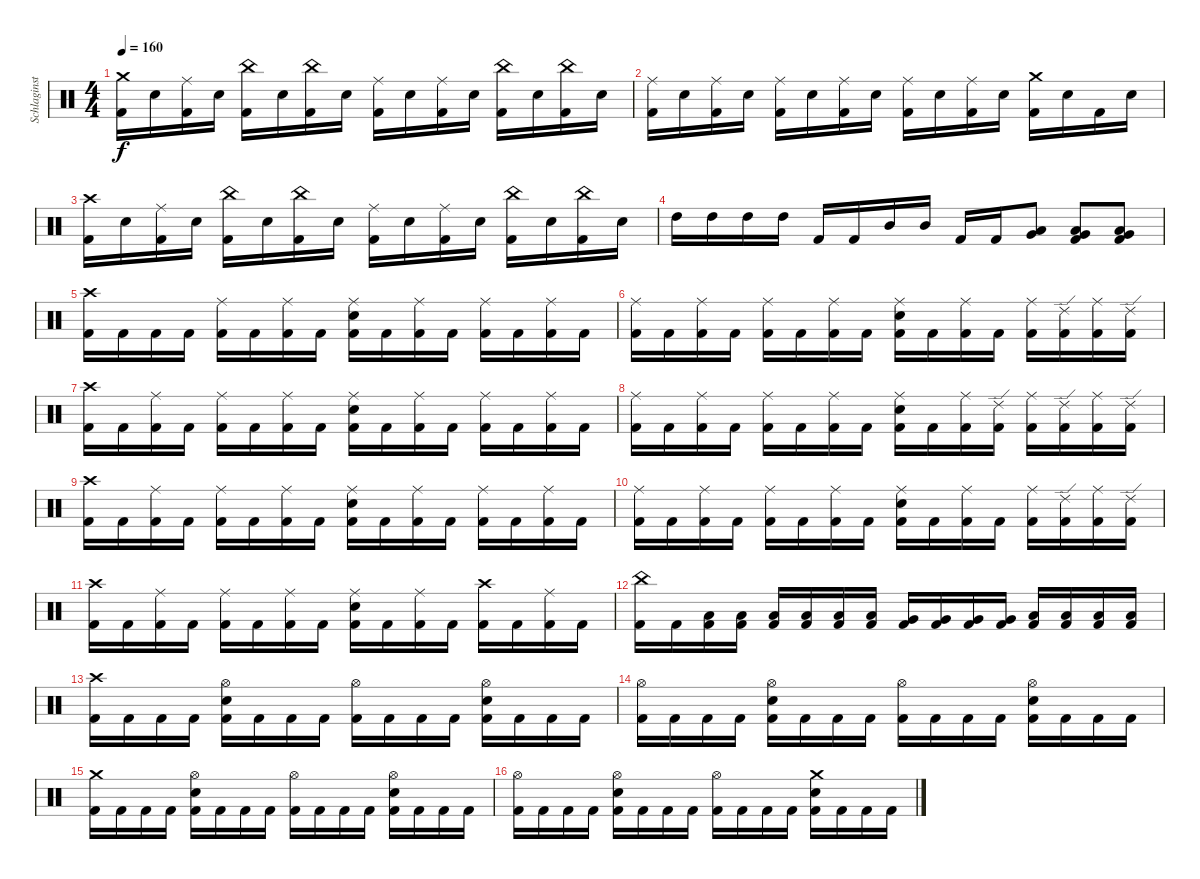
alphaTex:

\track ("Schlaginstrumente - Auswahl" "Schlaginst") {instrument percussion}
\staff {score}
\articulation defaults
\ts (4 4)
\tempo 160
\clef neutral
\ks c
("Crash medium (hit)" "Kick (hit) 2").16{dy f} "Snare (hit) 2".16 ("Ride (middle)" "Kick (hit) 2").16 "Snare (hit) 2".16 ("China (hit)" "Kick (hit) 2").16 "Snare (hit) 2".16 ("China (hit)" "Kick (hit) 2").16 "Snare (hit) 2".16 ("Ride (middle)" "Kick (hit) 2").16 "Snare (hit) 2".16 ("Ride (middle)" "Kick (hit) 2").16 "Snare (hit) 2".16 ("China (hit)" "Kick (hit) 2").16 "Snare (hit) 2".16 ("China (hit)" "Kick (hit) 2").16 "Snare (hit) 2".16 |
("Ride (middle)" "Kick (hit) 2").16 "Snare (hit) 2".16 ("Ride (middle)" "Kick (hit) 2").16 "Snare (hit) 2".16 ("Ride (middle)" "Kick (hit) 2").16 "Snare (hit) 2".16 ("Ride (middle)" "Kick (hit) 2").16 "Snare (hit) 2".16 ("Ride (middle)" "Kick (hit) 2").16 "Snare (hit) 2".16 ("Ride (middle)" "Kick (hit) 2").16 "Snare (hit) 2".16 ("Crash medium (hit)" "Kick (hit) 2").16 "Snare (hit) 2".16 "Kick (hit) 2".16 "Snare (hit) 2".16 |
("Crash high (hit)" "Kick (hit) 2").16 "Snare (hit) 2".16 ("Ride (middle)" "Kick (hit) 2").16 "Snare (hit) 2".16 ("China (hit)" "Kick (hit) 2").16 "Snare (hit) 2".16 ("China (hit)" "Kick (hit) 2").16 "Snare (hit) 2".16 ("Ride (middle)" "Kick (hit) 2").16 "Snare (hit) 2".16 ("Ride (middle)" "Kick (hit) 2").16 "Snare (hit) 2".16 ("China (hit)" "Kick (hit) 2").16 "Snare (hit) 2".16 ("China (hit)" "Kick (hit) 2").16 "Snare (hit) 2".16 |
"High Tom (hit)".16 "High Tom (hit)".16 "High Tom (hit)".16 "High Tom (hit)".16 "Kick (hit) 2".16 "Kick (hit) 2".16 "Mid Tom (hit)".16 "Mid Tom (hit)".16 "Kick (hit) 2".16 "Kick (hit) 2".16 ("Very Low Tom (hit)" "Low Floor Tom (hit)").8 ("Very Low Tom (hit)" "Low Floor Tom (hit)" "Kick (hit) 2").8 ("Very Low Tom (hit)" "Low Floor Tom (hit)" "Kick (hit) 2").8 |
("Crash high (hit)" "Kick (hit) 2").16 "Kick (hit) 2".16 "Kick (hit) 2".16 "Kick (hit) 2".16 ("Ride (middle)" "Kick (hit) 2").16 "Kick (hit) 2".16 ("Ride (middle)" "Kick (hit) 2").16 "Kick (hit) 2".16 ("Ride (middle)" "Snare (hit) 2" "Kick (hit) 2").16 "Kick (hit) 2".16 ("Ride (middle)" "Kick (hit) 2").16 "Kick (hit) 2".16 ("Ride (middle)" "Kick (hit) 2").16 "Kick (hit) 2".16 ("Ride (middle)" "Kick (hit) 2").16 "Kick (hit) 2".16 |
("Ride (middle)" "Kick (hit) 2").16 "Kick (hit) 2".16 ("Ride (middle)" "Kick (hit) 2").16 "Kick (hit) 2".16 ("Ride (middle)" "Kick (hit) 2").16 "Kick (hit) 2".16 ("Ride (middle)" "Kick (hit) 2").16 "Kick (hit) 2".16 ("Ride (middle)" "Snare (hit) 2" "Kick (hit) 2").16 "Kick (hit) 2".16 ("Ride (middle)" "Kick (hit) 2").16 "Kick (hit) 2".16 ("Ride (middle)" "Kick (hit) 2").16 ("Ride (edge) 2" "Kick (hit) 2").16 ("Ride (middle)" "Kick (hit) 2").16 ("Ride (edge) 2" "Kick (hit) 2").16 |
("Crash high (hit)" "Kick (hit) 2").16 "Kick (hit) 2".16 ("Ride (middle)" "Kick (hit) 2").16 "Kick (hit) 2".16 ("Ride (middle)" "Kick (hit) 2").16 "Kick (hit) 2".16 ("Ride (middle)" "Kick (hit) 2").16 "Kick (hit) 2".16 ("Ride (middle)" "Snare (hit) 2" "Kick (hit) 2").16 "Kick (hit) 2".16 ("Ride (middle)" "Kick (hit) 2").16 "Kick (hit) 2".16 ("Ride (middle)" "Kick (hit) 2").16 "Kick (hit) 2".16 ("Ride (middle)" "Kick (hit) 2").16 "Kick (hit) 2".16 |
("Ride (middle)" "Kick (hit) 2").16 "Kick (hit) 2".16 ("Ride (middle)" "Kick (hit) 2").16 "Kick (hit) 2".16 ("Ride (middle)" "Kick (hit) 2").16 "Kick (hit) 2".16 ("Ride (middle)" "Kick (hit) 2").16 "Kick (hit) 2".16 ("Ride (middle)" "Snare (hit) 2" "Kick (hit) 2").16 "Kick (hit) 2".16 ("Ride (middle)" "Kick (hit) 2").16 ("Ride (edge) 2" "Kick (hit) 2").16 ("Ride (middle)" "Kick (hit) 2").16 ("Ride (edge) 2" "Kick (hit) 2").16 ("Ride (middle)" "Kick (hit) 2").16 ("Ride (edge) 2" "Kick (hit) 2").16 |
("Crash high (hit)" "Kick (hit) 2").16 "Kick (hit) 2".16 ("Ride (middle)" "Kick (hit) 2").16 "Kick (hit) 2".16 ("Ride (middle)" "Kick (hit) 2").16 "Kick (hit) 2".16 ("Ride (middle)" "Kick (hit) 2").16 "Kick (hit) 2".16 ("Ride (middle)" "Snare (hit) 2" "Kick (hit) 2").16 "Kick (hit) 2".16 ("Ride (middle)" "Kick (hit) 2").16 "Kick (hit) 2".16 ("Ride (middle)" "Kick (hit) 2").16 "Kick (hit) 2".16 ("Ride (middle)" "Kick (hit) 2").16 "Kick (hit) 2".16 |
("Ride (middle)" "Kick (hit) 2").16 "Kick (hit) 2".16 ("Ride (middle)" "Kick (hit) 2").16 "Kick (hit) 2".16 ("Ride (middle)" "Kick (hit) 2").16 "Kick (hit) 2".16 ("Ride (middle)" "Kick (hit) 2").16 "Kick (hit) 2".16 ("Ride (middle)" "Snare (hit) 2" "Kick (hit) 2").16 "Kick (hit) 2".16 ("Ride (middle)" "Kick (hit) 2").16 "Kick (hit) 2".16 ("Ride (middle)" "Kick (hit) 2").16 ("Ride (edge) 2" "Kick (hit) 2").16 ("Ride (middle)" "Kick (hit) 2").16 ("Ride (edge) 2" "Kick (hit) 2").16 |
("Crash high (hit)" "Kick (hit) 2").16 "Kick (hit) 2".16 ("Ride (middle)" "Kick (hit) 2").16 "Kick (hit) 2".16 ("Ride (middle)" "Kick (hit) 2").16 "Kick (hit) 2".16 ("Ride (middle)" "Kick (hit) 2").16 "Kick (hit) 2".16 ("Ride (middle)" "Snare (hit) 2" "Kick (hit) 2").16 "Kick (hit) 2".16 ("Ride (middle)" "Kick (hit) 2").16 "Kick (hit) 2".16 ("Crash high (hit)" "Kick (hit) 2").16 "Kick (hit) 2".16 ("Ride (middle)" "Kick (hit) 2").16 "Kick (hit) 2".16 |
("China (hit)" "Kick (hit) 2").16 "Kick (hit) 2".16 ("Low Tom (hit)" "Kick (hit) 2").16 ("Low Tom (hit)" "Kick (hit) 2").16 ("Low Tom (hit)" "Kick (hit) 2").16 ("Low Tom (hit)" "Kick (hit) 2").16 ("Low Tom (hit)" "Kick (hit) 2").16 ("Low Tom (hit)" "Kick (hit) 2").16 ("Very Low Tom (hit)" "Kick (hit) 2").16 ("Very Low Tom (hit)" "Kick (hit) 2").16 ("Very Low Tom (hit)" "Kick (hit) 2").16 ("Very Low Tom (hit)" "Kick (hit) 2").16 ("Low Floor Tom (hit)" "Kick (hit) 2").16 ("Low Floor Tom (hit)" "Kick (hit) 2").16 ("Low Floor Tom (hit)" "Kick (hit) 2").16 ("Low Floor Tom (hit)" "Kick (hit) 2").16 |
("Crash high (hit)" "Kick (hit) 2").16 "Kick (hit) 2".16 "Kick (hit) 2".16 "Kick (hit) 2".16 ("Hi-Hat (open)" "Snare (hit) 2" "Kick (hit) 2").16 "Kick (hit) 2".16 "Kick (hit) 2".16 "Kick (hit) 2".16 ("Hi-Hat (open)" "Kick (hit) 2").16 "Kick (hit) 2".16 "Kick (hit) 2".16 "Kick (hit) 2".16 ("Hi-Hat (open)" "Snare (hit) 2" "Kick (hit) 2").16 "Kick (hit) 2".16 "Kick (hit) 2".16 "Kick (hit) 2".16 |
("Hi-Hat (open)" "Kick (hit) 2").16 "Kick (hit) 2".16 "Kick (hit) 2".16 "Kick (hit) 2".16 ("Hi-Hat (open)" "Snare (hit) 2" "Kick (hit) 2").16 "Kick (hit) 2".16 "Kick (hit) 2".16 "Kick (hit) 2".16 ("Hi-Hat (open)" "Kick (hit) 2").16 "Kick (hit) 2".16 "Kick (hit) 2".16 "Kick (hit) 2".16 ("Hi-Hat (open)" "Snare (hit) 2" "Kick (hit) 2").16 "Kick (hit) 2".16 "Kick (hit) 2".16 "Kick (hit) 2".16 |
("Crash medium (hit)" "Kick (hit) 2").16 "Kick (hit) 2".16 "Kick (hit) 2".16 "Kick (hit) 2".16 ("Hi-Hat (open)" "Snare (hit) 2" "Kick (hit) 2").16 "Kick (hit) 2".16 "Kick (hit) 2".16 "Kick (hit) 2".16 ("Hi-Hat (open)" "Kick (hit) 2").16 "Kick (hit) 2".16 "Kick (hit) 2".16 "Kick (hit) 2".16 ("Hi-Hat (open)" "Snare (hit) 2" "Kick (hit) 2").16 "Kick (hit) 2".16 "Kick (hit) 2".16 "Kick (hit) 2".16 |
("Hi-Hat (open)" "Kick (hit) 2").16 "Kick (hit) 2".16 "Kick (hit) 2".16 "Kick (hit) 2".16 ("Hi-Hat (open)" "Snare (hit) 2" "Kick (hit) 2").16 "Kick (hit) 2".16 "Kick (hit) 2".16 "Kick (hit) 2".16 ("Hi-Hat (open)" "Kick (hit) 2").16 "Kick (hit) 2".16 "Kick (hit) 2".16 "Kick (hit) 2".16 ("Crash medium (hit)" "Snare (hit) 2" "Kick (hit) 2").16 "Kick (hit) 2".16 "Kick (hit) 2".16 "Kick (hit) 2".16
